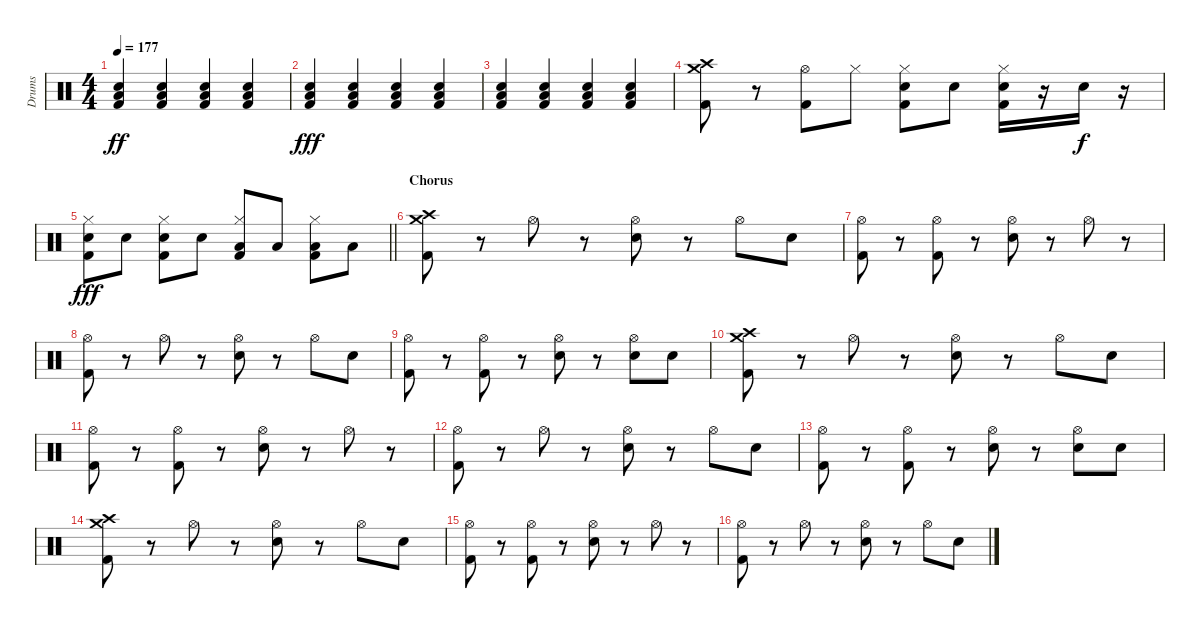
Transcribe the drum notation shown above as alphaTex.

\track ("Drums" "Drums") {instrument percussion}
\staff {score}
\articulation defaults
\ts (4 4)
\tempo 177
\clef neutral
\ks c
("Low Floor Tom (hit)" "Snare (hit) 2" "Kick (hit) 2").4{dy ff} ("Low Floor Tom (hit)" "Snare (hit) 2" "Kick (hit) 2").4 ("Low Floor Tom (hit)" "Snare (hit) 2" "Kick (hit) 2").4 ("Low Floor Tom (hit)" "Snare (hit) 2" "Kick (hit) 2").4 |
("Low Floor Tom (hit)" "Snare (hit) 2" "Kick (hit) 2").4{dy fff} ("Low Floor Tom (hit)" "Snare (hit) 2" "Kick (hit) 2").4 ("Low Floor Tom (hit)" "Snare (hit) 2" "Kick (hit) 2").4 ("Low Floor Tom (hit)" "Snare (hit) 2" "Kick (hit) 2").4 |
("Low Floor Tom (hit)" "Snare (hit) 2" "Kick (hit) 2").4 ("Low Floor Tom (hit)" "Snare (hit) 2" "Kick (hit) 2").4 ("Low Floor Tom (hit)" "Snare (hit) 2" "Kick (hit) 2").4 ("Low Floor Tom (hit)" "Snare (hit) 2" "Kick (hit) 2").4 |
("Crash high (hit)" "Crash medium (hit)" "Kick (hit) 2").8 r.8 ("Hi-Hat (open)" "Kick (hit) 2").8 "Hi-Hat (closed)".8 ("Hi-Hat (closed)" "Snare (hit) 2" "Kick (hit) 2").8 "Snare (hit) 2".8 ("Hi-Hat (closed)" "Snare (hit) 2" "Kick (hit) 2").16 r.16 "Snare (hit) 2".16{dy f} r.16 |
\barLineRight lightlight
("Hi-Hat (closed)" "Snare (hit) 2" "Kick (hit) 2").8{dy fff} "Snare (hit) 2".8 ("Hi-Hat (closed)" "Snare (hit) 2" "Kick (hit) 2").8 "Snare (hit) 2".8 ("Hi-Hat (closed)" "Low Tom (hit)" "Kick (hit) 2").8 "Low Tom (hit)".8 ("Hi-Hat (closed)" "Low Floor Tom (hit)" "Kick (hit) 2").8 "Low Floor Tom (hit)".8 |
\section ("" "Chorus")
("Crash high (hit)" "Crash medium (hit)" "Kick (hit) 2").8 r.8 "Hi-Hat (open)".8 r.8 ("Hi-Hat (open)" "Snare (hit) 2").8 r.8 "Hi-Hat (open)".8 "Snare (hit) 2".8 |
("Hi-Hat (open)" "Kick (hit) 2").8 r.8 ("Hi-Hat (open)" "Kick (hit) 2").8 r.8 ("Hi-Hat (open)" "Snare (hit) 2").8 r.8 "Hi-Hat (open)".8 r.8 |
("Hi-Hat (open)" "Kick (hit) 2").8 r.8 "Hi-Hat (open)".8 r.8 ("Hi-Hat (open)" "Snare (hit) 2").8 r.8 "Hi-Hat (open)".8 "Snare (hit) 2".8 |
("Hi-Hat (open)" "Kick (hit) 2").8 r.8 ("Hi-Hat (open)" "Kick (hit) 2").8 r.8 ("Hi-Hat (open)" "Snare (hit) 2").8 r.8 ("Hi-Hat (open)" "Snare (hit) 2").8 "Snare (hit) 2".8 |
("Crash high (hit)" "Crash medium (hit)" "Kick (hit) 2").8 r.8 "Hi-Hat (open)".8 r.8 ("Hi-Hat (open)" "Snare (hit) 2").8 r.8 "Hi-Hat (open)".8 "Snare (hit) 2".8 |
("Hi-Hat (open)" "Kick (hit) 2").8 r.8 ("Hi-Hat (open)" "Kick (hit) 2").8 r.8 ("Hi-Hat (open)" "Snare (hit) 2").8 r.8 "Hi-Hat (open)".8 r.8 |
("Hi-Hat (open)" "Kick (hit) 2").8 r.8 "Hi-Hat (open)".8 r.8 ("Hi-Hat (open)" "Snare (hit) 2").8 r.8 "Hi-Hat (open)".8 "Snare (hit) 2".8 |
("Hi-Hat (open)" "Kick (hit) 2").8 r.8 ("Hi-Hat (open)" "Kick (hit) 2").8 r.8 ("Hi-Hat (open)" "Snare (hit) 2").8 r.8 ("Hi-Hat (open)" "Snare (hit) 2").8 "Snare (hit) 2".8 |
("Crash high (hit)" "Crash medium (hit)" "Kick (hit) 2").8 r.8 "Hi-Hat (open)".8 r.8 ("Hi-Hat (open)" "Snare (hit) 2").8 r.8 "Hi-Hat (open)".8 "Snare (hit) 2".8 |
("Hi-Hat (open)" "Kick (hit) 2").8 r.8 ("Hi-Hat (open)" "Kick (hit) 2").8 r.8 ("Hi-Hat (open)" "Snare (hit) 2").8 r.8 "Hi-Hat (open)".8 r.8 |
("Hi-Hat (open)" "Kick (hit) 2").8 r.8 "Hi-Hat (open)".8 r.8 ("Hi-Hat (open)" "Snare (hit) 2").8 r.8 "Hi-Hat (open)".8 "Snare (hit) 2".8
